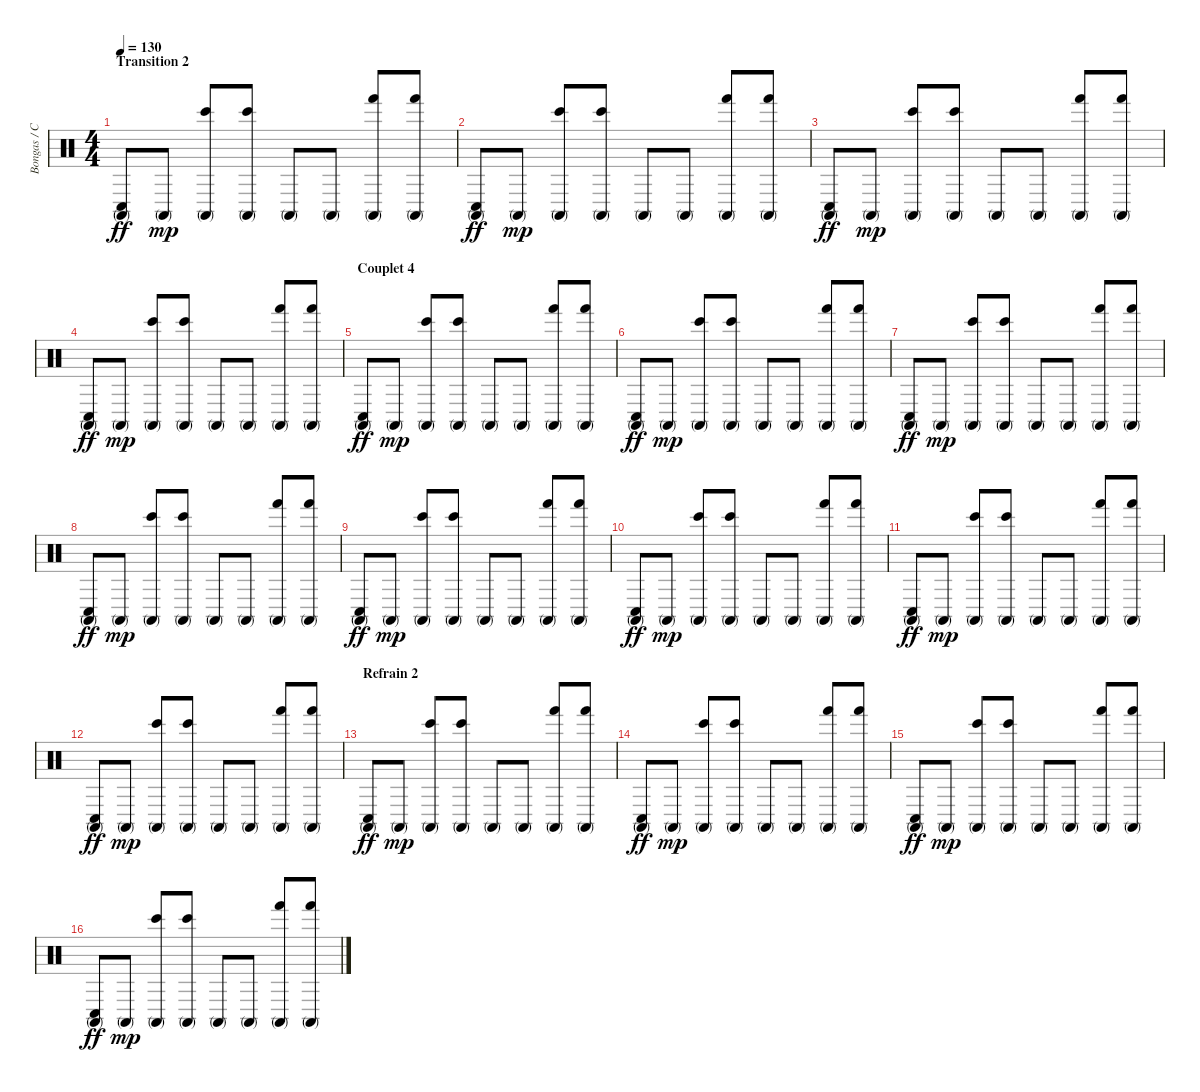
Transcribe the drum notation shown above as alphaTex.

\track ("Bongas / Congos" "Bongas / C") {instrument percussion}
\staff {score}
\articulation defaults
\ts (4 4)
\section ("" "Transition 2")
\tempo 130
\clef neutral
\ks c
("Conga high (mute)" "Conga low (hit)").8{dy ff} "Conga high (mute)".8{dy mp} ("Conga high (mute)" "Bongo High (hit)").8 ("Conga high (mute)" "Bongo High (hit)").8 "Conga high (mute)".8 "Conga high (mute)".8 ("Conga high (mute)" "Hand (hit)").8 ("Conga high (mute)" "Hand (hit)").8 |
("Conga high (mute)" "Conga low (hit)").8{dy ff} "Conga high (mute)".8{dy mp} ("Conga high (mute)" "Bongo High (hit)").8 ("Conga high (mute)" "Bongo High (hit)").8 "Conga high (mute)".8 "Conga high (mute)".8 ("Conga high (mute)" "Hand (hit)").8 ("Conga high (mute)" "Hand (hit)").8 |
("Conga high (mute)" "Conga low (hit)").8{dy ff} "Conga high (mute)".8{dy mp} ("Conga high (mute)" "Bongo High (hit)").8 ("Conga high (mute)" "Bongo High (hit)").8 "Conga high (mute)".8 "Conga high (mute)".8 ("Conga high (mute)" "Hand (hit)").8 ("Conga high (mute)" "Hand (hit)").8 |
("Conga high (mute)" "Conga low (hit)").8{dy ff} "Conga high (mute)".8{dy mp} ("Conga high (mute)" "Bongo High (hit)").8 ("Conga high (mute)" "Bongo High (hit)").8 "Conga high (mute)".8 "Conga high (mute)".8 ("Conga high (mute)" "Hand (hit)").8 ("Conga high (mute)" "Hand (hit)").8 |
\section ("" "Couplet 4")
("Conga high (mute)" "Conga low (hit)").8{dy ff} "Conga high (mute)".8{dy mp} ("Conga high (mute)" "Bongo High (hit)").8 ("Conga high (mute)" "Bongo High (hit)").8 "Conga high (mute)".8 "Conga high (mute)".8 ("Conga high (mute)" "Hand (hit)").8 ("Conga high (mute)" "Hand (hit)").8 |
("Conga high (mute)" "Conga low (hit)").8{dy ff} "Conga high (mute)".8{dy mp} ("Conga high (mute)" "Bongo High (hit)").8 ("Conga high (mute)" "Bongo High (hit)").8 "Conga high (mute)".8 "Conga high (mute)".8 ("Conga high (mute)" "Hand (hit)").8 ("Conga high (mute)" "Hand (hit)").8 |
("Conga high (mute)" "Conga low (hit)").8{dy ff} "Conga high (mute)".8{dy mp} ("Conga high (mute)" "Bongo High (hit)").8 ("Conga high (mute)" "Bongo High (hit)").8 "Conga high (mute)".8 "Conga high (mute)".8 ("Conga high (mute)" "Hand (hit)").8 ("Conga high (mute)" "Hand (hit)").8 |
("Conga high (mute)" "Conga low (hit)").8{dy ff} "Conga high (mute)".8{dy mp} ("Conga high (mute)" "Bongo High (hit)").8 ("Conga high (mute)" "Bongo High (hit)").8 "Conga high (mute)".8 "Conga high (mute)".8 ("Conga high (mute)" "Hand (hit)").8 ("Conga high (mute)" "Hand (hit)").8 |
("Conga high (mute)" "Conga low (hit)").8{dy ff} "Conga high (mute)".8{dy mp} ("Conga high (mute)" "Bongo High (hit)").8 ("Conga high (mute)" "Bongo High (hit)").8 "Conga high (mute)".8 "Conga high (mute)".8 ("Conga high (mute)" "Hand (hit)").8 ("Conga high (mute)" "Hand (hit)").8 |
("Conga high (mute)" "Conga low (hit)").8{dy ff} "Conga high (mute)".8{dy mp} ("Conga high (mute)" "Bongo High (hit)").8 ("Conga high (mute)" "Bongo High (hit)").8 "Conga high (mute)".8 "Conga high (mute)".8 ("Conga high (mute)" "Hand (hit)").8 ("Conga high (mute)" "Hand (hit)").8 |
("Conga high (mute)" "Conga low (hit)").8{dy ff} "Conga high (mute)".8{dy mp} ("Conga high (mute)" "Bongo High (hit)").8 ("Conga high (mute)" "Bongo High (hit)").8 "Conga high (mute)".8 "Conga high (mute)".8 ("Conga high (mute)" "Hand (hit)").8 ("Conga high (mute)" "Hand (hit)").8 |
("Conga high (mute)" "Conga low (hit)").8{dy ff} "Conga high (mute)".8{dy mp} ("Conga high (mute)" "Bongo High (hit)").8 ("Conga high (mute)" "Bongo High (hit)").8 "Conga high (mute)".8 "Conga high (mute)".8 ("Conga high (mute)" "Hand (hit)").8 ("Conga high (mute)" "Hand (hit)").8 |
\section ("" "Refrain 2")
("Conga high (mute)" "Conga low (hit)").8{dy ff} "Conga high (mute)".8{dy mp} ("Conga high (mute)" "Bongo High (hit)").8 ("Conga high (mute)" "Bongo High (hit)").8 "Conga high (mute)".8 "Conga high (mute)".8 ("Conga high (mute)" "Hand (hit)").8 ("Conga high (mute)" "Hand (hit)").8 |
("Conga high (mute)" "Conga low (hit)").8{dy ff} "Conga high (mute)".8{dy mp} ("Conga high (mute)" "Bongo High (hit)").8 ("Conga high (mute)" "Bongo High (hit)").8 "Conga high (mute)".8 "Conga high (mute)".8 ("Conga high (mute)" "Hand (hit)").8 ("Conga high (mute)" "Hand (hit)").8 |
("Conga high (mute)" "Conga low (hit)").8{dy ff} "Conga high (mute)".8{dy mp} ("Conga high (mute)" "Bongo High (hit)").8 ("Conga high (mute)" "Bongo High (hit)").8 "Conga high (mute)".8 "Conga high (mute)".8 ("Conga high (mute)" "Hand (hit)").8 ("Conga high (mute)" "Hand (hit)").8 |
("Conga high (mute)" "Conga low (hit)").8{dy ff} "Conga high (mute)".8{dy mp} ("Conga high (mute)" "Bongo High (hit)").8 ("Conga high (mute)" "Bongo High (hit)").8 "Conga high (mute)".8 "Conga high (mute)".8 ("Conga high (mute)" "Hand (hit)").8 ("Conga high (mute)" "Hand (hit)").8
